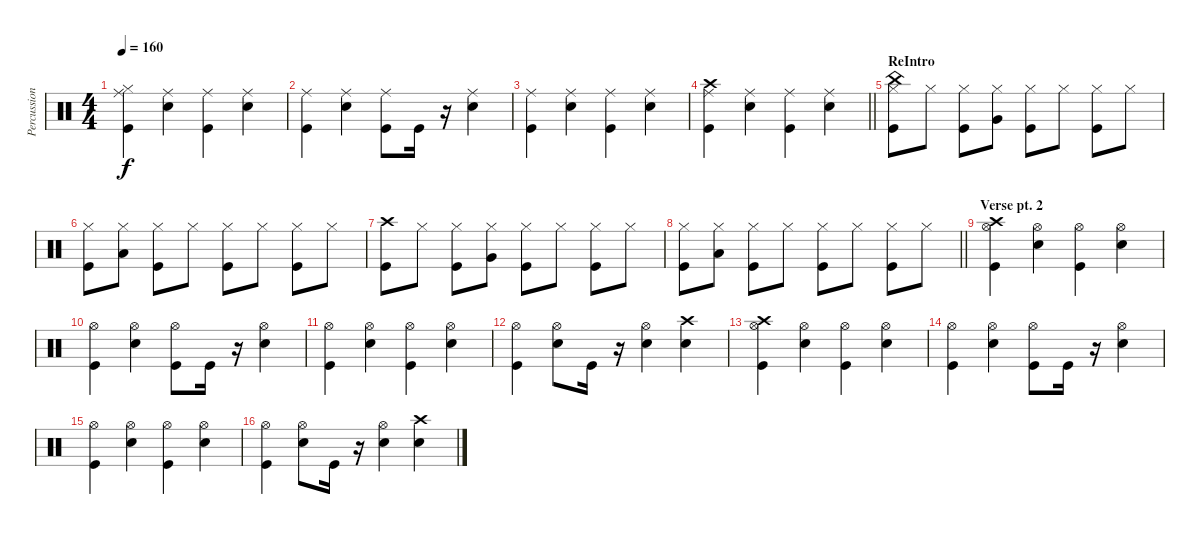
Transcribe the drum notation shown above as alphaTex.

\track ("Percussion" "Percussion") {instrument percussion}
\staff {score}
\articulation defaults
\ts (4 4)
\tempo 160
\clef neutral
\ks c
("Kick (hit)" "Ride (middle)" "Hi-Hat (closed)").4{dy f} ("Ride (middle)" "Snare (hit) 2").4 ("Ride (middle)" "Kick (hit)").4 ("Ride (middle)" "Snare (hit) 2").4 |
("Kick (hit)" "Ride (middle)").4 ("Ride (middle)" "Snare (hit) 2").4 ("Ride (middle)" "Kick (hit)").8 "Kick (hit)".16 r.16 ("Snare (hit) 2" "Ride (middle)").4 |
("Kick (hit)" "Ride (middle)").4 ("Ride (middle)" "Snare (hit) 2").4 ("Ride (middle)" "Kick (hit)").4 ("Ride (middle)" "Snare (hit) 2").4 |
\barLineRight lightlight
("Kick (hit)" "Crash high (hit)" "Ride (middle)").4 ("Ride (middle)" "Snare (hit) 2").4 ("Ride (middle)" "Kick (hit)").4 ("Ride (middle)" "Snare (hit) 2").4 |
\section ("" "ReIntro")
("Kick (hit)" "Hi-Hat (closed)" "China (hit)").8 "Hi-Hat (closed)".8 ("Hi-Hat (closed)" "Kick (hit)").8 ("Hi-Hat (closed)" "Very Low Tom (hit)").8 ("Hi-Hat (closed)" "Kick (hit)").8 "Hi-Hat (closed)".8 ("Hi-Hat (closed)" "Kick (hit)").8 "Hi-Hat (closed)".8 |
("Kick (hit)" "Hi-Hat (closed)").8 ("Low Floor Tom (hit)" "Hi-Hat (closed)").8 ("Kick (hit)" "Hi-Hat (closed)").8 "Hi-Hat (closed)".8 ("Hi-Hat (closed)" "Kick (hit)").8 "Hi-Hat (closed)".8 ("Kick (hit)" "Hi-Hat (closed)").8 "Hi-Hat (closed)".8 |
("Kick (hit)" "Crash high (hit)").8 "Hi-Hat (closed)".8 ("Hi-Hat (closed)" "Kick (hit)").8 ("Hi-Hat (closed)" "Very Low Tom (hit)").8 ("Hi-Hat (closed)" "Kick (hit)").8 "Hi-Hat (closed)".8 ("Hi-Hat (closed)" "Kick (hit)").8 "Hi-Hat (closed)".8 |
\barLineRight lightlight
("Kick (hit)" "Hi-Hat (closed)").8 ("Low Floor Tom (hit)" "Hi-Hat (closed)").8 ("Kick (hit)" "Hi-Hat (closed)").8 "Hi-Hat (closed)".8 ("Hi-Hat (closed)" "Kick (hit)").8 "Hi-Hat (closed)".8 ("Kick (hit)" "Hi-Hat (closed)").8 "Hi-Hat (closed)".8 |
\section ("" "Verse pt. 2")
("Kick (hit)" "Crash high (hit)" "Hi-Hat (open)").4 ("Hi-Hat (open)" "Snare (hit) 2").4 ("Kick (hit)" "Hi-Hat (open)").4 ("Snare (hit) 2" "Hi-Hat (open)").4 |
("Kick (hit)" "Hi-Hat (open)").4 ("Hi-Hat (open)" "Snare (hit) 2").4 ("Kick (hit)" "Hi-Hat (open)").8 "Kick (hit)".16 r.16 ("Snare (hit) 2" "Hi-Hat (open)").4 |
("Kick (hit)" "Hi-Hat (open)").4 ("Hi-Hat (open)" "Snare (hit) 2").4 ("Kick (hit)" "Hi-Hat (open)").4 ("Snare (hit) 2" "Hi-Hat (open)").4 |
("Kick (hit)" "Hi-Hat (open)").4 ("Snare (hit) 2" "Hi-Hat (open)").8 "Kick (hit)".16 r.16 ("Snare (hit) 2" "Hi-Hat (open)").4 ("Snare (hit) 2" "Crash high (hit)").4 |
("Kick (hit)" "Crash high (hit)" "Hi-Hat (open)").4 ("Hi-Hat (open)" "Snare (hit) 2").4 ("Kick (hit)" "Hi-Hat (open)").4 ("Snare (hit) 2" "Hi-Hat (open)").4 |
("Kick (hit)" "Hi-Hat (open)").4 ("Hi-Hat (open)" "Snare (hit) 2").4 ("Kick (hit)" "Hi-Hat (open)").8 "Kick (hit)".16 r.16 ("Snare (hit) 2" "Hi-Hat (open)").4 |
("Kick (hit)" "Hi-Hat (open)").4 ("Hi-Hat (open)" "Snare (hit) 2").4 ("Kick (hit)" "Hi-Hat (open)").4 ("Snare (hit) 2" "Hi-Hat (open)").4 |
("Kick (hit)" "Hi-Hat (open)").4 ("Snare (hit) 2" "Hi-Hat (open)").8 "Kick (hit)".16 r.16 ("Snare (hit) 2" "Hi-Hat (open)").4 ("Snare (hit) 2" "Crash high (hit)").4
